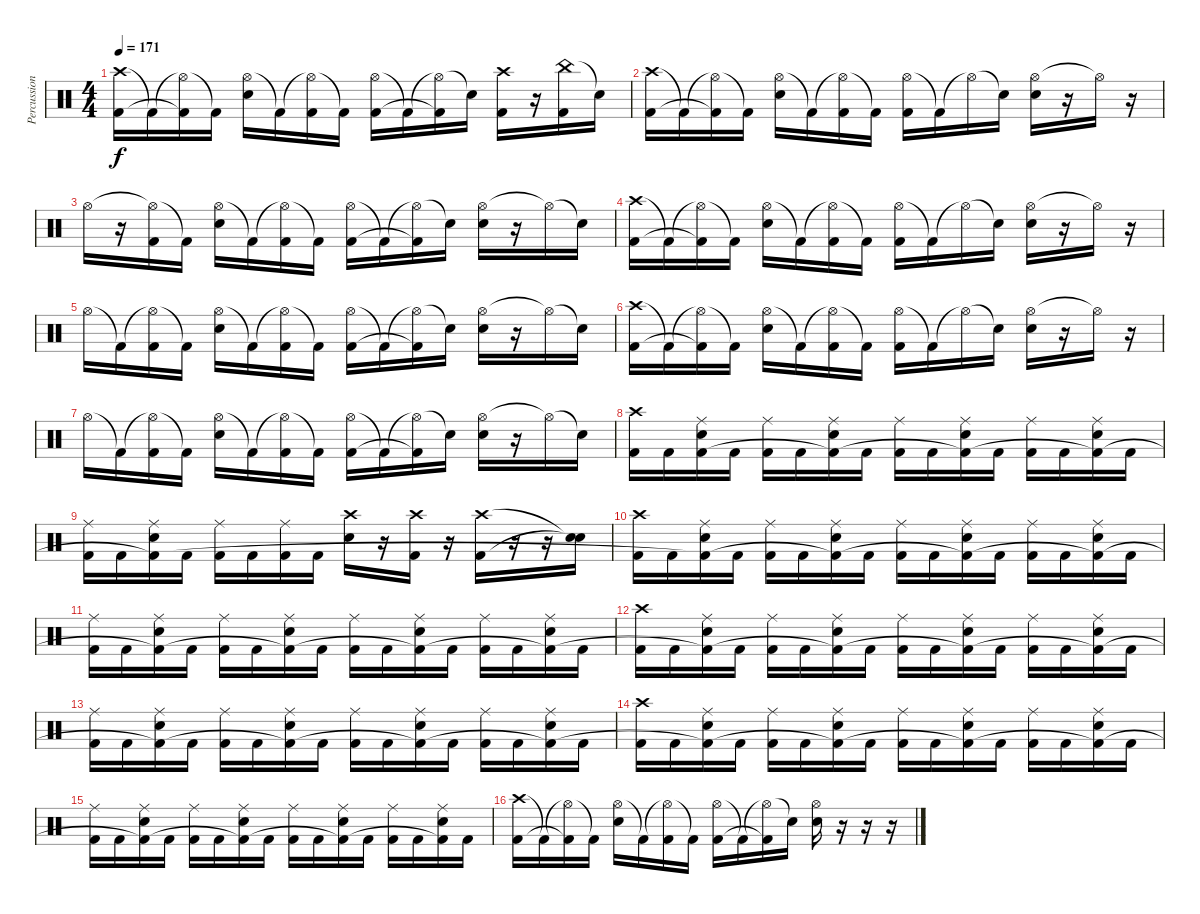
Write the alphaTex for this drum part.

\track ("Percussions" "Percussion") {instrument percussion}
\staff {score}
\articulation defaults
\ts (4 4)
\tempo 171
\clef neutral
\ks c
("Crash high (hit)" "Kick (hit) 2").16{dy f} "Kick (hit) 2"{t}.16 ("Hi-Hat (open)"{t} "Kick (hit) 2"{t}).16 "Kick (hit) 2"{t}.16 ("Hi-Hat (open)" "Electric Snare (hit)").16 "Kick (hit) 2"{t}.16 ("Hi-Hat (open)"{t} "Kick (hit) 2").16 "Kick (hit) 2"{t}.16 ("Hi-Hat (open)" "Kick (hit) 2").16 "Kick (hit) 2"{t}.16 ("Hi-Hat (open)"{t} "Kick (hit) 2"{t}).16 "Snare (hit)"{t}.16 ("Crash high (hit)" "Kick (hit) 2").16 r.16 ("China (hit)" "Kick (hit) 2").16 "Snare (hit)"{t}.16 |
("Crash high (hit)" "Kick (hit) 2").16 "Kick (hit) 2"{t}.16 ("Hi-Hat (open)"{t} "Kick (hit) 2"{t}).16 "Kick (hit) 2"{t}.16 ("Hi-Hat (open)" "Electric Snare (hit)").16 "Kick (hit) 2"{t}.16 ("Hi-Hat (open)"{t} "Kick (hit) 2").16 "Kick (hit) 2"{t}.16 ("Hi-Hat (open)" "Kick (hit) 2").16 "Kick (hit) 2"{t}.16 "Hi-Hat (open)"{t}.16 "Snare (hit)"{t}.16 ("Hi-Hat (open)" "Electric Snare (hit)").16 r.16 "Hi-Hat (open)"{t}.16 r.16 |
"Hi-Hat (open)".16 r.16 ("Hi-Hat (open)"{t} "Kick (hit) 2").16 "Kick (hit) 2"{t}.16 ("Hi-Hat (open)" "Electric Snare (hit)").16 "Kick (hit) 2"{t}.16 ("Hi-Hat (open)"{t} "Kick (hit) 2").16 "Kick (hit) 2"{t}.16 ("Hi-Hat (open)" "Kick (hit) 2").16 "Kick (hit) 2"{t}.16 ("Hi-Hat (open)"{t} "Kick (hit) 2"{t}).16 "Snare (hit)"{t}.16 ("Hi-Hat (open)" "Electric Snare (hit)").16 r.16 "Hi-Hat (open)"{t}.16 "Snare (hit)"{t}.16 |
("Crash high (hit)" "Kick (hit) 2").16 "Kick (hit) 2"{t}.16 ("Hi-Hat (open)"{t} "Kick (hit) 2"{t}).16 "Kick (hit) 2"{t}.16 ("Hi-Hat (open)" "Electric Snare (hit)").16 "Kick (hit) 2"{t}.16 ("Hi-Hat (open)"{t} "Kick (hit) 2").16 "Kick (hit) 2"{t}.16 ("Hi-Hat (open)" "Kick (hit) 2").16 "Kick (hit) 2"{t}.16 "Hi-Hat (open)"{t}.16 "Snare (hit)"{t}.16 ("Hi-Hat (open)" "Electric Snare (hit)").16 r.16 "Hi-Hat (open)"{t}.16 r.16 |
"Hi-Hat (open)".16 "Kick (hit) 2"{t}.16 ("Hi-Hat (open)"{t} "Kick (hit) 2").16 "Kick (hit) 2"{t}.16 ("Hi-Hat (open)" "Electric Snare (hit)").16 "Kick (hit) 2"{t}.16 ("Hi-Hat (open)"{t} "Kick (hit) 2").16 "Kick (hit) 2"{t}.16 ("Hi-Hat (open)" "Kick (hit) 2").16 "Kick (hit) 2"{t}.16 ("Hi-Hat (open)"{t} "Kick (hit) 2"{t}).16 "Snare (hit)"{t}.16 ("Hi-Hat (open)" "Electric Snare (hit)").16 r.16 "Hi-Hat (open)"{t}.16 "Snare (hit)"{t}.16 |
("Crash high (hit)" "Kick (hit) 2").16 "Kick (hit) 2"{t}.16 ("Hi-Hat (open)"{t} "Kick (hit) 2"{t}).16 "Kick (hit) 2"{t}.16 ("Hi-Hat (open)" "Electric Snare (hit)").16 "Kick (hit) 2"{t}.16 ("Hi-Hat (open)"{t} "Kick (hit) 2").16 "Kick (hit) 2"{t}.16 ("Hi-Hat (open)" "Kick (hit) 2").16 "Kick (hit) 2"{t}.16 "Hi-Hat (open)"{t}.16 "Snare (hit)"{t}.16 ("Hi-Hat (open)" "Electric Snare (hit)").16 r.16 "Hi-Hat (open)"{t}.16 r.16 |
"Hi-Hat (open)".16 "Kick (hit) 2"{t}.16 ("Hi-Hat (open)"{t} "Kick (hit) 2").16 "Kick (hit) 2"{t}.16 ("Hi-Hat (open)" "Electric Snare (hit)").16 "Kick (hit) 2"{t}.16 ("Hi-Hat (open)"{t} "Kick (hit) 2").16 "Kick (hit) 2"{t}.16 ("Hi-Hat (open)" "Kick (hit) 2").16 "Kick (hit) 2"{t}.16 ("Hi-Hat (open)"{t} "Kick (hit) 2"{t}).16 "Snare (hit)"{t}.16 ("Hi-Hat (open)" "Electric Snare (hit)").16 r.16 "Hi-Hat (open)"{t}.16 "Snare (hit)"{t}.16 |
("Crash high (hit)" "Kick (hit) 2").16 "Kick (hit) 2".16 ("Ride (middle)" "Electric Snare (hit)" "Kick (hit) 2").16 "Kick (hit) 2".16 ("Ride (middle)" "Kick (hit) 2").16 "Kick (hit) 2".16 ("Ride (middle)" "Electric Snare (hit)" "Kick (hit) 2"{t}).16 "Kick (hit) 2".16 ("Ride (middle)" "Kick (hit) 2").16 "Kick (hit) 2".16 ("Ride (middle)" "Electric Snare (hit)" "Kick (hit) 2"{t}).16 "Kick (hit) 2".16 ("Ride (middle)" "Kick (hit) 2").16 "Kick (hit) 2".16 ("Ride (middle)" "Electric Snare (hit)" "Kick (hit) 2"{t}).16 "Kick (hit) 2".16 |
("Ride (middle)" "Kick (hit) 2").16 "Kick (hit) 2".16 ("Ride (middle)" "Electric Snare (hit)" "Kick (hit) 2"{t}).16 "Kick (hit) 2".16 ("Ride (middle)" "Kick (hit) 2").16 "Kick (hit) 2".16 ("Ride (middle)" "Kick (hit) 2").16 "Kick (hit) 2".16 ("Crash high (hit)" "Electric Snare (hit)").16 r.16 ("Crash high (hit)" "Kick (hit) 2").16 r.16 ("Crash high (hit)" "Kick (hit) 2").16 r.16 r.16 ("Snare (hit)"{t} "Snare (hit)"{t}).16 |
("Crash high (hit)" "Kick (hit) 2").16 "Kick (hit) 2".16 ("Ride (middle)" "Electric Snare (hit)" "Kick (hit) 2"{t}).16 "Kick (hit) 2".16 ("Ride (middle)" "Kick (hit) 2").16 "Kick (hit) 2".16 ("Ride (middle)" "Electric Snare (hit)" "Kick (hit) 2"{t}).16 "Kick (hit) 2".16 ("Ride (middle)" "Kick (hit) 2").16 "Kick (hit) 2".16 ("Ride (middle)" "Electric Snare (hit)" "Kick (hit) 2"{t}).16 "Kick (hit) 2".16 ("Ride (middle)" "Kick (hit) 2").16 "Kick (hit) 2".16 ("Ride (middle)" "Electric Snare (hit)" "Kick (hit) 2"{t}).16 "Kick (hit) 2".16 |
("Ride (middle)" "Kick (hit) 2").16 "Kick (hit) 2".16 ("Ride (middle)" "Electric Snare (hit)" "Kick (hit) 2"{t}).16 "Kick (hit) 2".16 ("Ride (middle)" "Kick (hit) 2").16 "Kick (hit) 2".16 ("Ride (middle)" "Electric Snare (hit)" "Kick (hit) 2"{t}).16 "Kick (hit) 2".16 ("Ride (middle)" "Kick (hit) 2").16 "Kick (hit) 2".16 ("Ride (middle)" "Electric Snare (hit)" "Kick (hit) 2"{t}).16 "Kick (hit) 2".16 ("Ride (middle)" "Kick (hit) 2").16 "Kick (hit) 2".16 ("Ride (middle)" "Electric Snare (hit)" "Kick (hit) 2"{t}).16 "Kick (hit) 2".16 |
("Crash high (hit)" "Kick (hit) 2").16 "Kick (hit) 2".16 ("Ride (middle)" "Electric Snare (hit)" "Kick (hit) 2"{t}).16 "Kick (hit) 2".16 ("Ride (middle)" "Kick (hit) 2").16 "Kick (hit) 2".16 ("Ride (middle)" "Electric Snare (hit)" "Kick (hit) 2"{t}).16 "Kick (hit) 2".16 ("Ride (middle)" "Kick (hit) 2").16 "Kick (hit) 2".16 ("Ride (middle)" "Electric Snare (hit)" "Kick (hit) 2"{t}).16 "Kick (hit) 2".16 ("Ride (middle)" "Kick (hit) 2").16 "Kick (hit) 2".16 ("Ride (middle)" "Electric Snare (hit)" "Kick (hit) 2"{t}).16 "Kick (hit) 2".16 |
("Ride (middle)" "Kick (hit) 2").16 "Kick (hit) 2".16 ("Ride (middle)" "Electric Snare (hit)" "Kick (hit) 2"{t}).16 "Kick (hit) 2".16 ("Ride (middle)" "Kick (hit) 2").16 "Kick (hit) 2".16 ("Ride (middle)" "Electric Snare (hit)" "Kick (hit) 2"{t}).16 "Kick (hit) 2".16 ("Ride (middle)" "Kick (hit) 2").16 "Kick (hit) 2".16 ("Ride (middle)" "Electric Snare (hit)" "Kick (hit) 2"{t}).16 "Kick (hit) 2".16 ("Ride (middle)" "Kick (hit) 2").16 "Kick (hit) 2".16 ("Ride (middle)" "Electric Snare (hit)" "Kick (hit) 2"{t}).16 "Kick (hit) 2".16 |
("Crash high (hit)" "Kick (hit) 2").16 "Kick (hit) 2".16 ("Ride (middle)" "Electric Snare (hit)" "Kick (hit) 2"{t}).16 "Kick (hit) 2".16 ("Ride (middle)" "Kick (hit) 2").16 "Kick (hit) 2".16 ("Ride (middle)" "Electric Snare (hit)" "Kick (hit) 2"{t}).16 "Kick (hit) 2".16 ("Ride (middle)" "Kick (hit) 2").16 "Kick (hit) 2".16 ("Ride (middle)" "Electric Snare (hit)" "Kick (hit) 2"{t}).16 "Kick (hit) 2".16 ("Ride (middle)" "Kick (hit) 2").16 "Kick (hit) 2".16 ("Ride (middle)" "Electric Snare (hit)" "Kick (hit) 2"{t}).16 "Kick (hit) 2".16 |
("Ride (middle)" "Kick (hit) 2").16 "Kick (hit) 2".16 ("Ride (middle)" "Electric Snare (hit)" "Kick (hit) 2"{t}).16 "Kick (hit) 2".16 ("Ride (middle)" "Kick (hit) 2").16 "Kick (hit) 2".16 ("Ride (middle)" "Electric Snare (hit)" "Kick (hit) 2"{t}).16 "Kick (hit) 2".16 ("Ride (middle)" "Kick (hit) 2").16 "Kick (hit) 2".16 ("Ride (middle)" "Electric Snare (hit)" "Kick (hit) 2"{t}).16 "Kick (hit) 2".16 ("Ride (middle)" "Kick (hit) 2").16 "Kick (hit) 2".16 ("Ride (middle)" "Electric Snare (hit)" "Kick (hit) 2"{t}).16 "Kick (hit) 2".16 |
("Crash high (hit)" "Kick (hit) 2").16 "Kick (hit) 2"{t}.16 ("Hi-Hat (open)"{t} "Kick (hit) 2"{t}).16 "Kick (hit) 2"{t}.16 ("Hi-Hat (open)" "Electric Snare (hit)").16 "Kick (hit) 2"{t}.16 ("Hi-Hat (open)"{t} "Kick (hit) 2").16 "Kick (hit) 2"{t}.16 ("Hi-Hat (open)" "Kick (hit) 2").16 "Kick (hit) 2"{t}.16 ("Hi-Hat (open)"{t} "Kick (hit) 2"{t}).16 "Snare (hit)"{t}.16 ("Hi-Hat (open)" "Electric Snare (hit)").16 r.16 r.16 r.16
